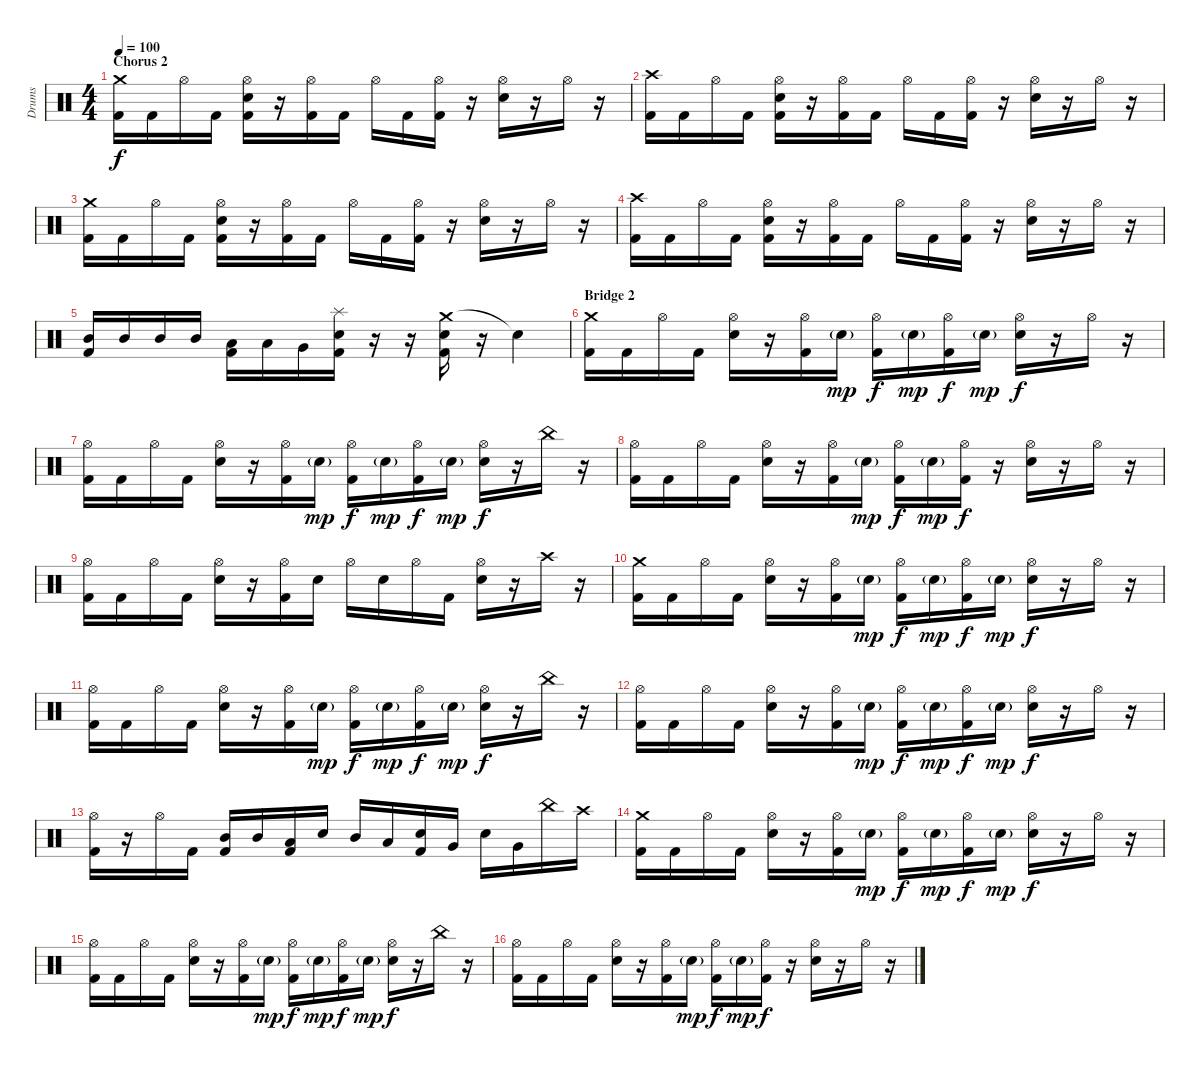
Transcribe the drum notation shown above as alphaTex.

\track ("Drums" "Drums") {instrument percussion}
\staff {score}
\articulation defaults
\ts (4 4)
\section ("" "Chorus 2")
\tempo 100
\clef neutral
\ks c
("Crash medium (hit)" "Kick (hit) 2").16{dy f} "Kick (hit) 2".16 "Hi-Hat (open)".16 "Kick (hit) 2".16 ("Hi-Hat (open)" "Snare (hit) 2" "Kick (hit) 2").16 r.16 ("Hi-Hat (open)" "Kick (hit) 2").16 "Kick (hit) 2".16 "Hi-Hat (open)".16 "Kick (hit) 2".16 ("Hi-Hat (open)" "Kick (hit) 2").16 r.16 ("Hi-Hat (open)" "Snare (hit) 2").16 r.16 "Hi-Hat (open)".16 r.16 |
("Crash high (hit)" "Kick (hit) 2").16 "Kick (hit) 2".16 "Hi-Hat (open)".16 "Kick (hit) 2".16 ("Hi-Hat (open)" "Snare (hit) 2" "Kick (hit) 2").16 r.16 ("Hi-Hat (open)" "Kick (hit) 2").16 "Kick (hit) 2".16 "Hi-Hat (open)".16 "Kick (hit) 2".16 ("Hi-Hat (open)" "Kick (hit) 2").16 r.16 ("Hi-Hat (open)" "Snare (hit) 2").16 r.16 "Hi-Hat (open)".16 r.16 |
("Crash medium (hit)" "Kick (hit) 2").16 "Kick (hit) 2".16 "Hi-Hat (open)".16 "Kick (hit) 2".16 ("Hi-Hat (open)" "Snare (hit) 2" "Kick (hit) 2").16 r.16 ("Hi-Hat (open)" "Kick (hit) 2").16 "Kick (hit) 2".16 "Hi-Hat (open)".16 "Kick (hit) 2".16 ("Hi-Hat (open)" "Kick (hit) 2").16 r.16 ("Hi-Hat (open)" "Snare (hit) 2").16 r.16 "Hi-Hat (open)".16 r.16 |
("Crash high (hit)" "Kick (hit) 2").16 "Kick (hit) 2".16 "Hi-Hat (open)".16 "Kick (hit) 2".16 ("Hi-Hat (open)" "Snare (hit) 2" "Kick (hit) 2").16 r.16 ("Hi-Hat (open)" "Kick (hit) 2").16 "Kick (hit) 2".16 "Hi-Hat (open)".16 "Kick (hit) 2".16 ("Hi-Hat (open)" "Kick (hit) 2").16 r.16 ("Hi-Hat (open)" "Snare (hit) 2").16 r.16 "Hi-Hat (open)".16 r.16 |
("Mid Tom (hit)" "Kick (hit) 2").16 "Mid Tom (hit)".16 "Mid Tom (hit)".16 "Mid Tom (hit)".16 ("Low Tom (hit)" "Kick (hit) 2").16 "Low Tom (hit)".16 "Very Low Tom (hit)".16 ("Splash (hit)" "Snare (hit) 2" "Kick (hit) 2").16 r.16 r.16 ("Crash medium (hit)" "Snare (hit) 2" "Kick (hit) 2").16 r.16 "Snare (hit)"{t}.4 |
\section ("" "Bridge 2")
("Crash medium (hit)" "Kick (hit) 2").16 "Kick (hit) 2".16 "Hi-Hat (open)".16 "Kick (hit) 2".16 ("Hi-Hat (open)" "Snare (hit) 2").16 r.16 ("Hi-Hat (open)" "Kick (hit) 2").16 "Snare (hit) 2"{g}.16{dy mp} ("Hi-Hat (open)" "Kick (hit) 2").16{dy f} "Snare (hit) 2"{g}.16{dy mp} ("Hi-Hat (open)" "Kick (hit) 2").16{dy f} "Snare (hit) 2"{g}.16{dy mp} ("Hi-Hat (open)" "Snare (hit) 2").16{dy f} r.16 "Hi-Hat (open)".16 r.16 |
("Hi-Hat (open)" "Kick (hit) 2").16 "Kick (hit) 2".16 "Hi-Hat (open)".16 "Kick (hit) 2".16 ("Hi-Hat (open)" "Snare (hit) 2").16 r.16 ("Hi-Hat (open)" "Kick (hit) 2").16 "Snare (hit) 2"{g}.16{dy mp} ("Hi-Hat (open)" "Kick (hit) 2").16{dy f} "Snare (hit) 2"{g}.16{dy mp} ("Hi-Hat (open)" "Kick (hit) 2").16{dy f} "Snare (hit) 2"{g}.16{dy mp} ("Hi-Hat (open)" "Snare (hit) 2").16{dy f} r.16 "China (hit)".16 r.16 |
("Hi-Hat (open)" "Kick (hit) 2").16 "Kick (hit) 2".16 "Hi-Hat (open)".16 "Kick (hit) 2".16 ("Hi-Hat (open)" "Snare (hit) 2").16 r.16 ("Hi-Hat (open)" "Kick (hit) 2").16 "Snare (hit) 2"{g}.16{dy mp} ("Hi-Hat (open)" "Kick (hit) 2").16{dy f} "Snare (hit) 2"{g}.16{dy mp} ("Hi-Hat (open)" "Kick (hit) 2").16{dy f} r.16 ("Hi-Hat (open)" "Snare (hit) 2").16 r.16 "Hi-Hat (open)".16 r.16 |
("Hi-Hat (open)" "Kick (hit) 2").16 "Kick (hit) 2".16 "Hi-Hat (open)".16 "Kick (hit) 2".16 ("Hi-Hat (open)" "Snare (hit) 2").16 r.16 ("Hi-Hat (open)" "Kick (hit) 2").16 "Snare (hit) 2".16 "Hi-Hat (open)".16 "Snare (hit) 2".16 "Hi-Hat (open)".16 "Kick (hit) 2".16 ("Hi-Hat (open)" "Snare (hit) 2").16 r.16 "Crash high (hit)".16 r.16 |
("Crash medium (hit)" "Kick (hit) 2").16 "Kick (hit) 2".16 "Hi-Hat (open)".16 "Kick (hit) 2".16 ("Hi-Hat (open)" "Snare (hit) 2").16 r.16 ("Hi-Hat (open)" "Kick (hit) 2").16 "Snare (hit) 2"{g}.16{dy mp} ("Hi-Hat (open)" "Kick (hit) 2").16{dy f} "Snare (hit) 2"{g}.16{dy mp} ("Hi-Hat (open)" "Kick (hit) 2").16{dy f} "Snare (hit) 2"{g}.16{dy mp} ("Hi-Hat (open)" "Snare (hit) 2").16{dy f} r.16 "Hi-Hat (open)".16 r.16 |
("Hi-Hat (open)" "Kick (hit) 2").16 "Kick (hit) 2".16 "Hi-Hat (open)".16 "Kick (hit) 2".16 ("Hi-Hat (open)" "Snare (hit) 2").16 r.16 ("Hi-Hat (open)" "Kick (hit) 2").16 "Snare (hit) 2"{g}.16{dy mp} ("Hi-Hat (open)" "Kick (hit) 2").16{dy f} "Snare (hit) 2"{g}.16{dy mp} ("Hi-Hat (open)" "Kick (hit) 2").16{dy f} "Snare (hit) 2"{g}.16{dy mp} ("Hi-Hat (open)" "Snare (hit) 2").16{dy f} r.16 "China (hit)".16 r.16 |
("Hi-Hat (open)" "Kick (hit) 2").16 "Kick (hit) 2".16 "Hi-Hat (open)".16 "Kick (hit) 2".16 ("Hi-Hat (open)" "Snare (hit) 2").16 r.16 ("Hi-Hat (open)" "Kick (hit) 2").16 "Snare (hit) 2"{g}.16{dy mp} ("Hi-Hat (open)" "Kick (hit) 2").16{dy f} "Snare (hit) 2"{g}.16{dy mp} ("Hi-Hat (open)" "Kick (hit) 2").16{dy f} "Snare (hit) 2"{g}.16{dy mp} ("Hi-Hat (open)" "Snare (hit) 2").16{dy f} r.16 "Hi-Hat (open)".16 r.16 |
("Hi-Hat (open)" "Kick (hit) 2").16 r.16 "Hi-Hat (open)".16 "Kick (hit) 2".16 ("Mid Tom (hit)" "Kick (hit) 2").16 "Mid Tom (hit)".16 ("Low Tom (hit)" "Kick (hit) 2").16 "Snare (hit) 2".16 "Mid Tom (hit)".16 "Low Tom (hit)".16 ("Snare (hit) 2" "Kick (hit) 2").16 "Very Low Tom (hit)".16 "Snare (hit) 2".16 "Very Low Tom (hit)".16 "China (hit)".16 "Crash high (hit)".16 |
("Crash medium (hit)" "Kick (hit) 2").16 "Kick (hit) 2".16 "Hi-Hat (open)".16 "Kick (hit) 2".16 ("Hi-Hat (open)" "Snare (hit) 2").16 r.16 ("Hi-Hat (open)" "Kick (hit) 2").16 "Snare (hit) 2"{g}.16{dy mp} ("Hi-Hat (open)" "Kick (hit) 2").16{dy f} "Snare (hit) 2"{g}.16{dy mp} ("Hi-Hat (open)" "Kick (hit) 2").16{dy f} "Snare (hit) 2"{g}.16{dy mp} ("Hi-Hat (open)" "Snare (hit) 2").16{dy f} r.16 "Hi-Hat (open)".16 r.16 |
("Hi-Hat (open)" "Kick (hit) 2").16 "Kick (hit) 2".16 "Hi-Hat (open)".16 "Kick (hit) 2".16 ("Hi-Hat (open)" "Snare (hit) 2").16 r.16 ("Hi-Hat (open)" "Kick (hit) 2").16 "Snare (hit) 2"{g}.16{dy mp} ("Hi-Hat (open)" "Kick (hit) 2").16{dy f} "Snare (hit) 2"{g}.16{dy mp} ("Hi-Hat (open)" "Kick (hit) 2").16{dy f} "Snare (hit) 2"{g}.16{dy mp} ("Hi-Hat (open)" "Snare (hit) 2").16{dy f} r.16 "China (hit)".16 r.16 |
("Hi-Hat (open)" "Kick (hit) 2").16 "Kick (hit) 2".16 "Hi-Hat (open)".16 "Kick (hit) 2".16 ("Hi-Hat (open)" "Snare (hit) 2").16 r.16 ("Hi-Hat (open)" "Kick (hit) 2").16 "Snare (hit) 2"{g}.16{dy mp} ("Hi-Hat (open)" "Kick (hit) 2").16{dy f} "Snare (hit) 2"{g}.16{dy mp} ("Hi-Hat (open)" "Kick (hit) 2").16{dy f} r.16 ("Hi-Hat (open)" "Snare (hit) 2").16 r.16 "Hi-Hat (open)".16 r.16
